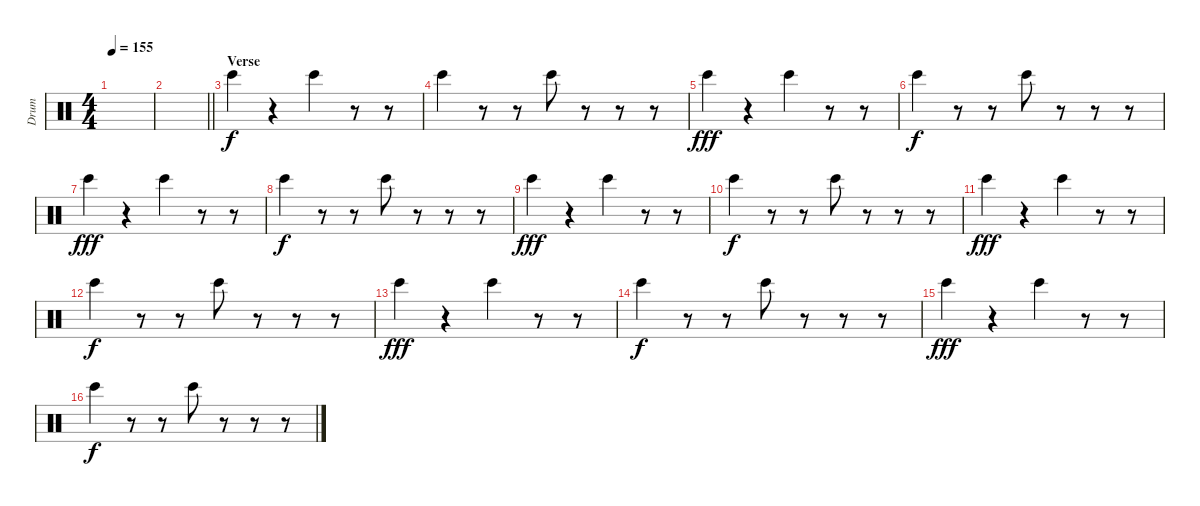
\track ("Drum" "Drum") {instrument percussion}
\staff {score}
\articulation defaults
\ts (4 4)
\tempo 155
\clef neutral
\ks c
|
\barLineRight lightlight
|
\section ("" "Verse")
"Bongo High (hit)".4 r.4 "Bongo High (hit)".4 r.8 r.8 |
"Bongo High (hit)".4{dy f} r.8 r.8 "Bongo High (hit)".8 r.8 r.8 r.8 |
"Bongo High (hit)".4{dy fff} r.4 "Bongo High (hit)".4 r.8 r.8 |
"Bongo High (hit)".4{dy f} r.8 r.8 "Bongo High (hit)".8 r.8 r.8 r.8 |
"Bongo High (hit)".4{dy fff} r.4 "Bongo High (hit)".4 r.8 r.8 |
"Bongo High (hit)".4{dy f} r.8 r.8 "Bongo High (hit)".8 r.8 r.8 r.8 |
"Bongo High (hit)".4{dy fff} r.4 "Bongo High (hit)".4 r.8 r.8 |
"Bongo High (hit)".4{dy f} r.8 r.8 "Bongo High (hit)".8 r.8 r.8 r.8 |
"Bongo High (hit)".4{dy fff} r.4 "Bongo High (hit)".4 r.8 r.8 |
"Bongo High (hit)".4{dy f} r.8 r.8 "Bongo High (hit)".8 r.8 r.8 r.8 |
"Bongo High (hit)".4{dy fff} r.4 "Bongo High (hit)".4 r.8 r.8 |
"Bongo High (hit)".4{dy f} r.8 r.8 "Bongo High (hit)".8 r.8 r.8 r.8 |
"Bongo High (hit)".4{dy fff} r.4 "Bongo High (hit)".4 r.8 r.8 |
"Bongo High (hit)".4{dy f} r.8 r.8 "Bongo High (hit)".8 r.8 r.8 r.8
